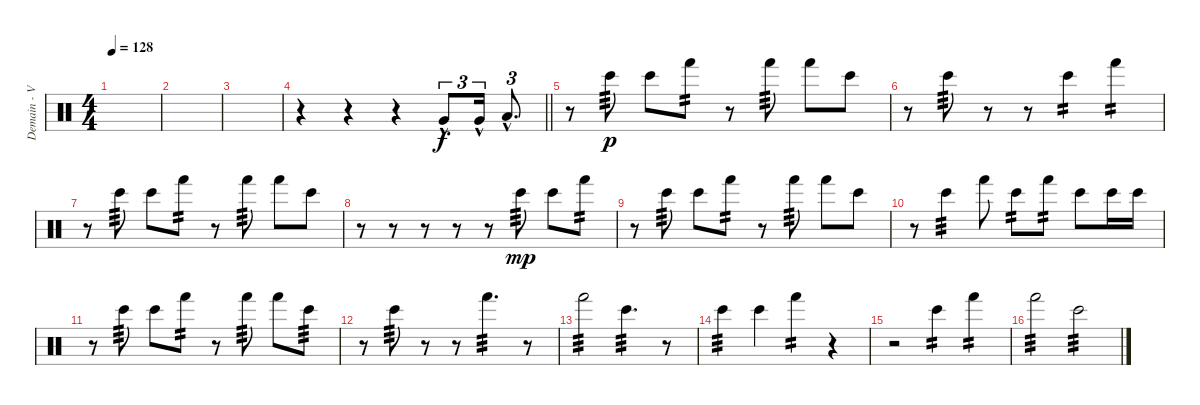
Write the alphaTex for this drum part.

\track ("Demain - Various Perc." "Demain - V") {instrument percussion}
\staff {score}
\articulation defaults
\ts (4 4)
\tempo 128
\tempo 125
\tempo 128
\clef neutral
\ks c
|
|
|
\barLineRight lightlight
r.4 r.4 r.4 "Very Low Tom (hit)"{hac}.8{tu (3 2)} "Very Low Tom (hit)"{hac}.16{tu (3 2)} "Low Floor Tom (hit)"{hac}.8{d tu (3 2)} |
r.8 "Bongo High (hit)".8{tp 3 dy p} "Bongo High (hit)".8 "Hand (hit)".8{tp 2} r.8 "Hand (hit)".8{tp 3} "Hand (hit)".8 "Bongo High (hit)".8 |
r.8 "Bongo High (hit)".8{tp 3} r.8 r.8 "Bongo High (hit)".4{tp 2} "Hand (hit)".4{tp 2} |
r.8 "Bongo High (hit)".8{tp 3} "Bongo High (hit)".8 "Hand (hit)".8{tp 2} r.8 "Hand (hit)".8{tp 3} "Hand (hit)".8 "Bongo High (hit)".8 |
r.8 r.8 r.8 r.8 r.8 "Bongo High (hit)".8{tp 3 dy mp} "Bongo High (hit)".8 "Hand (hit)".8{tp 2} |
r.8 "Bongo High (hit)".8{tp 3} "Bongo High (hit)".8 "Hand (hit)".8{tp 2} r.8 "Hand (hit)".8{tp 3} "Hand (hit)".8 "Bongo High (hit)".8 |
r.8 "Bongo High (hit)".4{tp 3} "Hand (hit)".8 "Bongo High (hit)".8{tp 2} "Hand (hit)".8{tp 2} "Bongo High (hit)".8 "Bongo High (hit)".16 "Bongo High (hit)".16 |
r.8 "Bongo High (hit)".8{tp 3} "Bongo High (hit)".8 "Hand (hit)".8{tp 2} r.8 "Hand (hit)".8{tp 3} "Hand (hit)".8 "Bongo High (hit)".8{tp 3} |
r.8 "Bongo High (hit)".8{tp 3} r.8 r.8 "Hand (hit)".4{d tp 3} r.8 |
"Hand (hit)".2{tp 3} "Bongo High (hit)".4{d tp 3} r.8 |
"Bongo High (hit)".4{tp 3} "Bongo High (hit)".4 "Hand (hit)".4{tp 2} r.4 |
r.2 "Bongo High (hit)".4{tp 2} "Hand (hit)".4{tp 2} |
"Hand (hit)".2{tp 3} "Bongo High (hit)".2{tp 3}
